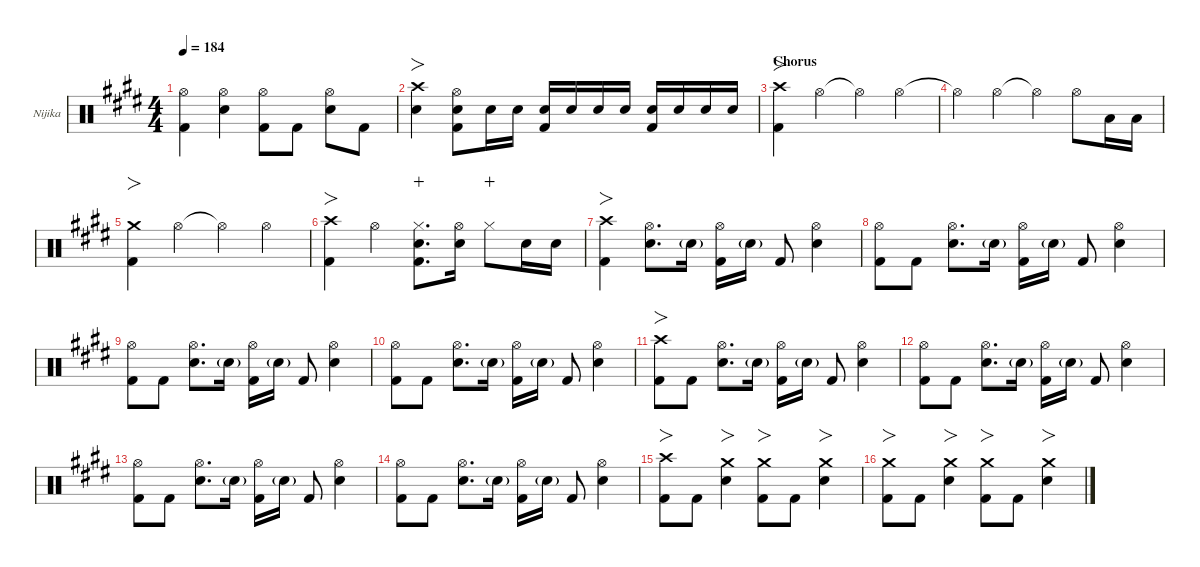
\defaultSystemsLayout 4
\hideDynamics
\bracketExtendMode nobrackets
\firstSystemTrackNameOrientation horizontal
\track ("Nijika" "Nijika") {defaultSystemsLayout 4 instrument percussion}
\staff {score}
\articulation defaults
\ts (4 4)
\tempo 184
\clef neutral
\ks e
("Hi-Hat (open)"{acc forcenatural} "Kick (hit) 2"{acc forcenatural}).4{dy f beam Down} ("Hi-Hat (open)"{acc forcenatural} "Snare (hit) 2"{acc forcenatural}).4{beam Down} ("Hi-Hat (open)"{acc forcenatural} "Kick (hit) 2"{acc forcenatural}).8{beam Down} "Kick (hit) 2"{acc forcenatural}.8{beam Down} ("Hi-Hat (open)"{acc forcenatural} "Snare (hit) 2"{acc forcenatural}).8{beam Down} "Kick (hit) 2"{acc forcenatural}.8{beam Down} |
("Crash high (hit)"{acc forcenatural} "Snare (hit) 2"{acc forcenatural}).4{fo beam Down} ("Snare (hit) 2"{acc forcenatural} "Hi-Hat (open)"{acc forcenatural} "Kick (hit) 2"{acc forcenatural}).8{beam Down} "Snare (hit) 2"{acc forcenatural}.16{beam Down} "Snare (hit) 2"{acc forcenatural}.16{dy mf beam Down} ("Snare (hit) 2"{acc forcenatural} "Kick (hit) 2"{acc forcenatural}).16{dy f beam Up} "Snare (hit) 2"{acc forcenatural}.16{dy mf beam Up} "Snare (hit) 2"{acc forcenatural}.16{dy f beam Up} "Snare (hit) 2"{acc forcenatural}.16{dy mf beam Up beam split} ("Snare (hit) 2"{acc forcenatural} "Kick (hit) 2"{acc forcenatural}).16{dy f beam Up} "Snare (hit) 2"{acc forcenatural}.16{dy mf beam Up} "Snare (hit) 2"{acc forcenatural}.16{dy f beam Up} "Snare (hit) 2"{acc forcenatural}.16{dy mf beam Up} |
\section ("" "Chorus")
("Crash high (hit)"{acc forcenatural} "Kick (hit) 2"{acc forcenatural}).4{fo dy f beam Down} "Hi-Hat (open)"{acc forcenatural}.4{beam Down} "Hi-Hat (open)"{t acc forcenatural}.4{beam Down} "Hi-Hat (open)"{acc forcenatural}.4{beam Down} |
"Hi-Hat (open)"{t acc forcenatural}.4{beam Down} "Hi-Hat (open)"{acc forcenatural}.4{beam Down} "Hi-Hat (open)"{t acc forcenatural}.4{beam Down} "Hi-Hat (open)"{acc forcenatural}.8{beam Down} "Low Tom (hit)"{acc forcenatural}.16{beam Down} "Low Tom (hit)"{acc forcenatural}.16{beam Down} |
("Crash medium (hit)"{acc forcenatural} "Kick (hit) 2"{acc forcenatural}).4{fo beam Down} "Hi-Hat (open)"{acc forcenatural}.4{beam Down} "Hi-Hat (open)"{t acc forcenatural}.4{beam Down} "Hi-Hat (open)"{acc forcenatural}.4{beam Down} |
("Crash high (hit)"{acc forcenatural} "Kick (hit) 2"{acc forcenatural}).4{fo beam Down} "Hi-Hat (open)"{acc forcenatural}.4{beam Down} ("Hi-Hat (closed)"{acc forcenatural} "Snare (hit) 2"{acc forcenatural} "Kick (hit) 2"{acc forcenatural}).8{d wahc beam Down} ("Hi-Hat (open)"{acc forcenatural} "Snare (hit) 2"{acc forcenatural}).16{beam Down beam split} "Hi-Hat (closed)"{acc forcenatural}.8{dy mp wahc beam Down} "Snare (hit) 2"{acc forcenatural}.16{dy f beam Down} "Snare (hit) 2"{acc forcenatural}.16{dy mf beam Down} |
("Crash high (hit)"{acc forcenatural} "Kick (hit) 2"{acc forcenatural}).4{fo dy f beam Down} ("Hi-Hat (open)"{acc forcenatural} "Snare (hit) 2"{acc forcenatural}).8{d beam Down} "Snare (hit) 2"{g acc forcenatural}.16{dy mf beam Down} ("Hi-Hat (open)"{acc forcenatural} "Kick (hit) 2"{acc forcenatural}).16{dy f beam Down} "Snare (hit) 2"{g acc forcenatural}.16{dy mf beam Down beam split} "Kick (hit) 2"{acc forcenatural}.8{dy f beam Up} ("Hi-Hat (open)"{acc forcenatural} "Snare (hit) 2"{acc forcenatural}).4{beam Down} |
("Hi-Hat (open)"{acc forcenatural} "Kick (hit) 2"{acc forcenatural}).8{beam Down} "Kick (hit) 2"{acc forcenatural}.8{beam Down} ("Hi-Hat (open)"{acc forcenatural} "Snare (hit) 2"{acc forcenatural}).8{d beam Down} "Snare (hit) 2"{g acc forcenatural}.16{dy mf beam Down} ("Hi-Hat (open)"{acc forcenatural} "Kick (hit) 2"{acc forcenatural}).16{dy f beam Down} "Snare (hit) 2"{g acc forcenatural}.16{dy mf beam Down beam split} "Kick (hit) 2"{acc forcenatural}.8{dy f beam Up} ("Hi-Hat (open)"{acc forcenatural} "Snare (hit) 2"{acc forcenatural}).4{beam Down} |
("Hi-Hat (open)"{acc forcenatural} "Kick (hit) 2"{acc forcenatural}).8{beam Down} "Kick (hit) 2"{acc forcenatural}.8{beam Down} ("Hi-Hat (open)"{acc forcenatural} "Snare (hit) 2"{acc forcenatural}).8{d beam Down} "Snare (hit) 2"{g acc forcenatural}.16{dy mf beam Down} ("Hi-Hat (open)"{acc forcenatural} "Kick (hit) 2"{acc forcenatural}).16{dy f beam Down} "Snare (hit) 2"{g acc forcenatural}.16{dy mf beam Down beam split} "Kick (hit) 2"{acc forcenatural}.8{dy f beam Up} ("Hi-Hat (open)"{acc forcenatural} "Snare (hit) 2"{acc forcenatural}).4{beam Down} |
("Hi-Hat (open)"{acc forcenatural} "Kick (hit) 2"{acc forcenatural}).8{beam Down} "Kick (hit) 2"{acc forcenatural}.8{beam Down} ("Hi-Hat (open)"{acc forcenatural} "Snare (hit) 2"{acc forcenatural}).8{d beam Down} "Snare (hit) 2"{g acc forcenatural}.16{dy mf beam Down} ("Hi-Hat (open)"{acc forcenatural} "Kick (hit) 2"{acc forcenatural}).16{dy f beam Down} "Snare (hit) 2"{g acc forcenatural}.16{dy mf beam Down beam split} "Kick (hit) 2"{acc forcenatural}.8{dy f beam Up} ("Hi-Hat (open)"{acc forcenatural} "Snare (hit) 2"{acc forcenatural}).4{beam Down} |
("Crash high (hit)"{acc forcenatural} "Kick (hit) 2"{acc forcenatural}).8{fo beam Down} "Kick (hit) 2"{acc forcenatural}.8{beam Down} ("Hi-Hat (open)"{acc forcenatural} "Snare (hit) 2"{acc forcenatural}).8{d beam Down} "Snare (hit) 2"{g acc forcenatural}.16{dy mf beam Down} ("Hi-Hat (open)"{acc forcenatural} "Kick (hit) 2"{acc forcenatural}).16{dy f beam Down} "Snare (hit) 2"{g acc forcenatural}.16{dy mf beam Down beam split} "Kick (hit) 2"{acc forcenatural}.8{dy f beam Up} ("Hi-Hat (open)"{acc forcenatural} "Snare (hit) 2"{acc forcenatural}).4{beam Down} |
("Hi-Hat (open)"{acc forcenatural} "Kick (hit) 2"{acc forcenatural}).8{beam Down} "Kick (hit) 2"{acc forcenatural}.8{beam Down} ("Hi-Hat (open)"{acc forcenatural} "Snare (hit) 2"{acc forcenatural}).8{d beam Down} "Snare (hit) 2"{g acc forcenatural}.16{dy mf beam Down} ("Hi-Hat (open)"{acc forcenatural} "Kick (hit) 2"{acc forcenatural}).16{dy f beam Down} "Snare (hit) 2"{g acc forcenatural}.16{dy mf beam Down beam split} "Kick (hit) 2"{acc forcenatural}.8{dy f beam Up} ("Hi-Hat (open)"{acc forcenatural} "Snare (hit) 2"{acc forcenatural}).4{beam Down} |
("Hi-Hat (open)"{acc forcenatural} "Kick (hit) 2"{acc forcenatural}).8{beam Down} "Kick (hit) 2"{acc forcenatural}.8{beam Down} ("Hi-Hat (open)"{acc forcenatural} "Snare (hit) 2"{acc forcenatural}).8{d beam Down} "Snare (hit) 2"{g acc forcenatural}.16{dy mf beam Down} ("Hi-Hat (open)"{acc forcenatural} "Kick (hit) 2"{acc forcenatural}).16{dy f beam Down} "Snare (hit) 2"{g acc forcenatural}.16{dy mf beam Down beam split} "Kick (hit) 2"{acc forcenatural}.8{dy f beam Up} ("Hi-Hat (open)"{acc forcenatural} "Snare (hit) 2"{acc forcenatural}).4{beam Down} |
("Hi-Hat (open)"{acc forcenatural} "Kick (hit) 2"{acc forcenatural}).8{beam Down} "Kick (hit) 2"{acc forcenatural}.8{beam Down} ("Hi-Hat (open)"{acc forcenatural} "Snare (hit) 2"{acc forcenatural}).8{d beam Down} "Snare (hit) 2"{g acc forcenatural}.16{dy mf beam Down} ("Hi-Hat (open)"{acc forcenatural} "Kick (hit) 2"{acc forcenatural}).16{dy f beam Down} "Snare (hit) 2"{g acc forcenatural}.16{dy mf beam Down beam split} "Kick (hit) 2"{acc forcenatural}.8{dy f beam Up} ("Hi-Hat (open)"{acc forcenatural} "Snare (hit) 2"{acc forcenatural}).4{beam Down} |
("Crash high (hit)"{acc forcenatural} "Kick (hit) 2"{acc forcenatural}).8{fo beam Down} "Kick (hit) 2"{acc forcenatural}.8{beam Down} ("Crash medium (hit)"{acc forcenatural} "Snare (hit) 2"{acc forcenatural}).4{fo beam Down} ("Crash medium (hit)"{acc forcenatural} "Kick (hit) 2"{acc forcenatural}).8{fo beam Down} "Kick (hit) 2"{acc forcenatural}.8{beam Down} ("Crash medium (hit)"{acc forcenatural} "Snare (hit) 2"{acc forcenatural}).4{fo beam Down} |
("Crash medium (hit)"{acc forcenatural} "Kick (hit) 2"{acc forcenatural}).8{fo beam Down} "Kick (hit) 2"{acc forcenatural}.8{beam Down} ("Crash medium (hit)"{acc forcenatural} "Snare (hit) 2"{acc forcenatural}).4{fo beam Down} ("Crash medium (hit)"{acc forcenatural} "Kick (hit) 2"{acc forcenatural}).8{fo beam Down} "Kick (hit) 2"{acc forcenatural}.8{beam Down} ("Crash medium (hit)"{acc forcenatural} "Snare (hit) 2"{acc forcenatural}).4{fo beam Down}
